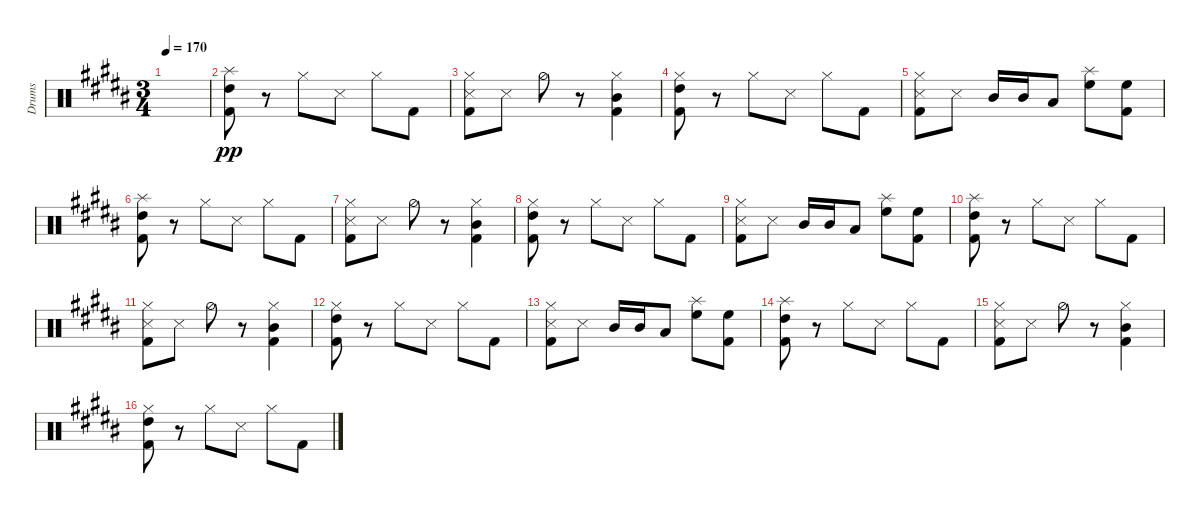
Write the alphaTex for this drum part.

\defaultSystemsLayout 4
\bracketExtendMode groupsimilarinstruments
\otherSystemsTrackNameOrientation horizontal
\track ("Drumkit" "Drums") {instrument percussion}
\staff {score}
\articulation defaults
\ts (3 4)
\tempo 170
\clef neutral
\ks b
|
("High Tom (hit)"{acc bb} "Kick (hit) 2"{acc bb} "Splash (hit)"{acc bb}).8{dy pp beam Down} r.8{beam Down} "Hi-Hat (closed)"{acc bb}.8{beam Down} "Snare (side stick) 3"{acc bb}.8{beam Down} "Hi-Hat (closed)"{acc bb}.8{beam Down} "Kick (hit) 2"{acc bb}.8{beam Down} |
("Hi-Hat (closed)"{acc bb} "Snare (side stick) 3"{acc bb} "Kick (hit) 2"{acc bb}).8{beam Down} "Snare (side stick) 3"{acc bb}.8{beam Down} "Hi-Hat (half)"{acc bb}.8{beam Down} r.8{beam Down} ("Hi-Hat (closed)"{acc bb} "Kick (hit) 2"{acc bb} "Mid Tom (hit)"{acc bb}).4{beam Down} |
("High Tom (hit)"{acc bb} "Kick (hit) 2"{acc bb} "Hi-Hat (closed)"{acc bb}).8{beam Down} r.8{beam Down} "Hi-Hat (closed)"{acc bb}.8{beam Down} "Snare (side stick) 3"{acc bb}.8{beam Down} "Hi-Hat (closed)"{acc bb}.8{beam Down} "Kick (hit) 2"{acc bb}.8{beam Down} |
("Hi-Hat (closed)"{acc bb} "Snare (side stick) 3"{acc bb} "Kick (hit) 2"{acc bb}).8{beam Down} "Snare (side stick) 3"{acc bb}.8{beam Down} "Mid Tom (hit)"{acc bb}.16{beam Up} "Mid Tom (hit)"{acc bb}.16{beam Up} "Low Tom (hit)"{acc bb}.8{beam Up} ("High Floor Tom (hit)"{acc bb} "Splash (hit)"{acc bb}).8{beam Down} ("High Floor Tom (hit)"{acc bb} "Kick (hit) 2"{acc bb}).8{beam Down} |
("High Tom (hit)"{acc bb} "Kick (hit) 2"{acc bb} "Splash (hit)"{acc bb}).8{beam Down} r.8{beam Down} "Hi-Hat (closed)"{acc bb}.8{beam Down} "Snare (side stick) 3"{acc bb}.8{beam Down} "Hi-Hat (closed)"{acc bb}.8{beam Down} "Kick (hit) 2"{acc bb}.8{beam Down} |
("Hi-Hat (closed)"{acc bb} "Snare (side stick) 3"{acc bb} "Kick (hit) 2"{acc bb}).8{beam Down} "Snare (side stick) 3"{acc bb}.8{beam Down} "Hi-Hat (half)"{acc bb}.8{beam Down} r.8{beam Down} ("Hi-Hat (closed)"{acc bb} "Kick (hit) 2"{acc bb} "Mid Tom (hit)"{acc bb}).4{beam Down} |
("High Tom (hit)"{acc bb} "Kick (hit) 2"{acc bb} "Hi-Hat (closed)"{acc bb}).8{beam Down} r.8{beam Down} "Hi-Hat (closed)"{acc bb}.8{beam Down} "Snare (side stick) 3"{acc bb}.8{beam Down} "Hi-Hat (closed)"{acc bb}.8{beam Down} "Kick (hit) 2"{acc bb}.8{beam Down} |
("Hi-Hat (closed)"{acc bb} "Snare (side stick) 3"{acc bb} "Kick (hit) 2"{acc bb}).8{beam Down} "Snare (side stick) 3"{acc bb}.8{beam Down} "Mid Tom (hit)"{acc bb}.16{beam Up} "Mid Tom (hit)"{acc bb}.16{beam Up} "Low Tom (hit)"{acc bb}.8{beam Up} ("High Floor Tom (hit)"{acc bb} "Splash (hit)"{acc bb}).8{beam Down} ("High Floor Tom (hit)"{acc bb} "Kick (hit) 2"{acc bb}).8{beam Down} |
("High Tom (hit)"{acc bb} "Kick (hit) 2"{acc bb} "Splash (hit)"{acc bb}).8{beam Down} r.8{beam Down} "Hi-Hat (closed)"{acc bb}.8{beam Down} "Snare (side stick) 3"{acc bb}.8{beam Down} "Hi-Hat (closed)"{acc bb}.8{beam Down} "Kick (hit) 2"{acc bb}.8{beam Down} |
("Hi-Hat (closed)"{acc bb} "Snare (side stick) 3"{acc bb} "Kick (hit) 2"{acc bb}).8{beam Down} "Snare (side stick) 3"{acc bb}.8{beam Down} "Hi-Hat (half)"{acc bb}.8{beam Down} r.8{beam Down} ("Hi-Hat (closed)"{acc bb} "Kick (hit) 2"{acc bb} "Mid Tom (hit)"{acc bb}).4{beam Down} |
("High Tom (hit)"{acc bb} "Kick (hit) 2"{acc bb} "Hi-Hat (closed)"{acc bb}).8{beam Down} r.8{beam Down} "Hi-Hat (closed)"{acc bb}.8{beam Down} "Snare (side stick) 3"{acc bb}.8{beam Down} "Hi-Hat (closed)"{acc bb}.8{beam Down} "Kick (hit) 2"{acc bb}.8{beam Down} |
("Hi-Hat (closed)"{acc bb} "Snare (side stick) 3"{acc bb} "Kick (hit) 2"{acc bb}).8{beam Down} "Snare (side stick) 3"{acc bb}.8{beam Down} "Mid Tom (hit)"{acc bb}.16{beam Up} "Mid Tom (hit)"{acc bb}.16{beam Up} "Low Tom (hit)"{acc bb}.8{beam Up} ("High Floor Tom (hit)"{acc bb} "Splash (hit)"{acc bb}).8{beam Down} ("High Floor Tom (hit)"{acc bb} "Kick (hit) 2"{acc bb}).8{beam Down} |
("High Tom (hit)"{acc bb} "Kick (hit) 2"{acc bb} "Splash (hit)"{acc bb}).8{beam Down} r.8{beam Down} "Hi-Hat (closed)"{acc bb}.8{beam Down} "Snare (side stick) 3"{acc bb}.8{beam Down} "Hi-Hat (closed)"{acc bb}.8{beam Down} "Kick (hit) 2"{acc bb}.8{beam Down} |
("Hi-Hat (closed)"{acc bb} "Snare (side stick) 3"{acc bb} "Kick (hit) 2"{acc bb}).8{beam Down} "Snare (side stick) 3"{acc bb}.8{beam Down} "Hi-Hat (half)"{acc bb}.8{beam Down} r.8{beam Down} ("Hi-Hat (closed)"{acc bb} "Kick (hit) 2"{acc bb} "Mid Tom (hit)"{acc bb}).4{beam Down} |
("High Tom (hit)"{acc bb} "Kick (hit) 2"{acc bb} "Hi-Hat (closed)"{acc bb}).8{beam Down} r.8{beam Down} "Hi-Hat (closed)"{acc bb}.8{beam Down} "Snare (side stick) 3"{acc bb}.8{beam Down} "Hi-Hat (closed)"{acc bb}.8{beam Down} "Kick (hit) 2"{acc bb}.8{beam Down}
